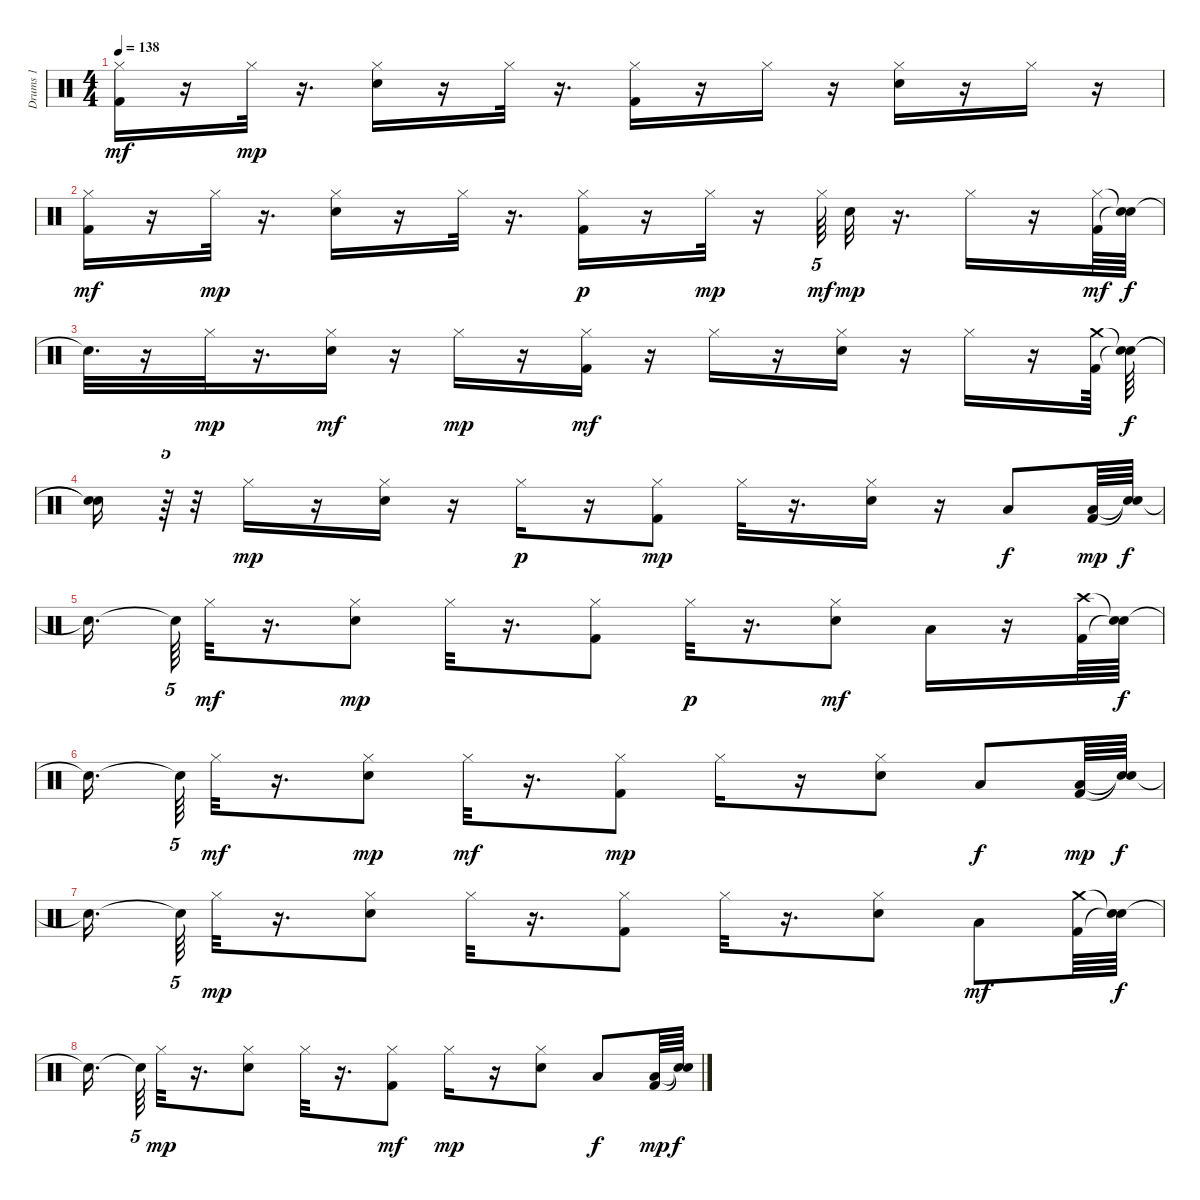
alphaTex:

\track ("Drums 1" "Drums 1") {instrument percussion}
\staff {score}
\articulation defaults
\ts (4 4)
\tempo 138
\clef neutral
\ks c
("Kick (hit) 2" "Hi-Hat (closed)").16{dy mf} r.16 "Hi-Hat (closed)".32{dy mp} r.16{d} ("Hi-Hat (closed)" "Snare (hit) 2").16 r.16 "Hi-Hat (closed)".32 r.16{d} ("Hi-Hat (closed)" "Kick (hit) 2").16 r.16 "Hi-Hat (closed)".16 r.16 ("Hi-Hat (closed)" "Snare (hit) 2").16 r.16 "Hi-Hat (closed)".16 r.16 |
("Kick (hit) 2" "Hi-Hat (closed)").16{dy mf} r.16 "Hi-Hat (closed)".32{dy mp} r.16{d} ("Hi-Hat (closed)" "Snare (hit) 2").16 r.16 "Hi-Hat (closed)".32 r.16{d} ("Hi-Hat (closed)" "Kick (hit) 2").16{dy p} r.16 "Hi-Hat (closed)".32{dy mp} r.16 "Hi-Hat (closed)".64{tu (5 4) dy mf} "Snare (hit) 2".32{dy mp} r.16{d} "Hi-Hat (closed)".16 r.16 ("Kick (hit) 2" "Hi-Hat (closed)").64{dy mf} ("Snare (hit)"{t} "Snare (hit)"{t}).64{dy f} |
"Snare (hit)"{t}.32{d} r.16 "Hi-Hat (closed)".32{dy mp} r.16{d} ("Snare (hit) 2" "Hi-Hat (closed)").16{dy mf} r.16 "Hi-Hat (closed)".16{dy mp} r.16 ("Kick (hit) 2" "Hi-Hat (closed)").16{dy mf} r.16 "Hi-Hat (closed)".16 r.16 ("Snare (hit) 2" "Hi-Hat (closed)").16 r.16 "Hi-Hat (closed)".16 r.16 ("Kick (hit) 2" "Crash medium (hit)").64 ("Snare (hit)"{t} "Snare (hit)"{t}).64{dy f} |
("Snare (hit)"{t} "Snare (hit)"{t}).16 r.64{tu (5 4)} r.32 "Hi-Hat (closed)".16{dy mp} r.16 ("Snare (hit) 2" "Hi-Hat (closed)").16 r.16 "Hi-Hat (closed)".16{dy p} r.16 ("Hi-Hat (closed)" "Kick (hit) 2").8{dy mp} "Hi-Hat (closed)".32 r.16{d} ("Snare (hit) 2" "Hi-Hat (closed)").16 r.16 "Low Tom (hit)".8{dy f} ("Low Floor Tom (hit)" "Kick (hit) 2").64{dy mp} ("Snare (hit)"{t} "Snare (hit)"{t}).64{dy f} |
"Snare (hit)"{t}.16{d} "Snare (hit)"{t}.64{tu (5 4)} "Hi-Hat (closed)".32{dy mf} r.16{d} ("Hi-Hat (closed)" "Snare (hit) 2").8{dy mp} "Hi-Hat (closed)".32 r.16{d} ("Kick (hit) 2" "Hi-Hat (closed)").8 "Hi-Hat (closed)".32{dy p} r.16{d} ("Hi-Hat (closed)" "Snare (hit) 2").8{dy mf} "Low Floor Tom (hit)".16 r.16 ("Crash high (hit)" "Kick (hit) 2").64 ("Snare (hit)"{t} "Snare (hit)"{t}).64{dy f} |
"Snare (hit)"{t}.16{d} "Snare (hit)"{t}.64{tu (5 4)} "Hi-Hat (closed)".32{dy mf} r.16{d} ("Hi-Hat (closed)" "Snare (hit) 2").8{dy mp} "Hi-Hat (closed)".32{dy mf} r.16{d} ("Hi-Hat (closed)" "Kick (hit) 2").8{dy mp} "Hi-Hat (closed)".16 r.16 ("Hi-Hat (closed)" "Snare (hit) 2").8 "Low Tom (hit)".8{dy f} ("Low Floor Tom (hit)" "Kick (hit) 2").64{dy mp} ("Snare (hit)"{t} "Snare (hit)"{t}).64{dy f} |
"Snare (hit)"{t}.16{d} "Snare (hit)"{t}.64{tu (5 4)} "Hi-Hat (closed)".32{dy mp} r.16{d} ("Hi-Hat (closed)" "Snare (hit) 2").8 "Hi-Hat (closed)".32 r.16{d} ("Kick (hit) 2" "Hi-Hat (closed)").8 "Hi-Hat (closed)".32 r.16{d} ("Snare (hit) 2" "Hi-Hat (closed)").8 "Low Floor Tom (hit)".8{dy mf} ("Crash medium (hit)" "Kick (hit) 2").64 ("Snare (hit)"{t} "Snare (hit)"{t}).64{dy f} |
"Snare (hit)"{t}.16{d} "Snare (hit)"{t}.64{tu (5 4)} "Hi-Hat (closed)".32{dy mp} r.16{d} ("Hi-Hat (closed)" "Snare (hit) 2").8 "Hi-Hat (closed)".32 r.16{d} ("Kick (hit) 2" "Hi-Hat (closed)").8{dy mf} "Hi-Hat (closed)".16{dy mp} r.16 ("Hi-Hat (closed)" "Snare (hit) 2").8 "Low Tom (hit)".8{dy f} ("Low Floor Tom (hit)" "Kick (hit) 2").64{dy mp} ("Snare (hit)"{t} "Snare (hit)"{t}).64{dy f}
